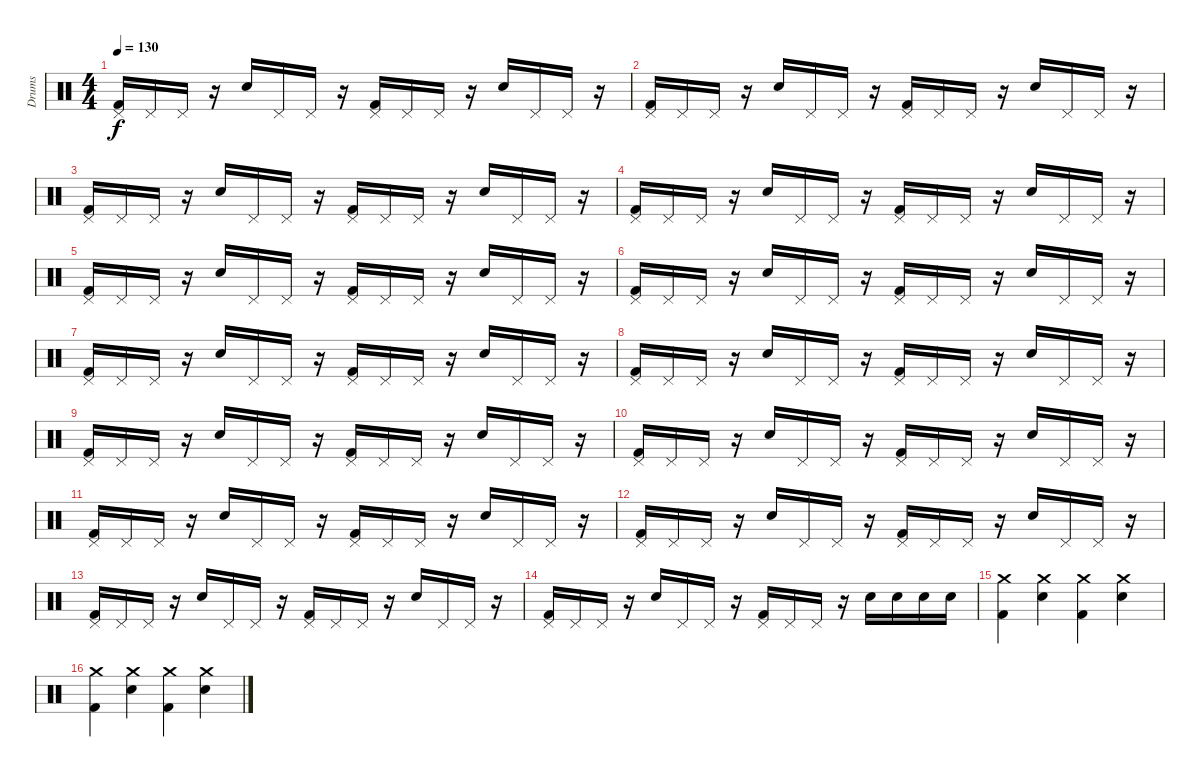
\track ("Drums" "Drums") {instrument percussion}
\staff {score}
\articulation defaults
\ts (4 4)
\tempo 130
\clef neutral
\ks c
("Pedal Hi-Hat (hit)" "Kick (hit) 2").16{dy f} "Pedal Hi-Hat (hit)".16 "Pedal Hi-Hat (hit)".16 r.16 "Electric Snare (hit)".16 "Pedal Hi-Hat (hit)".16 "Pedal Hi-Hat (hit)".16 r.16 ("Pedal Hi-Hat (hit)" "Kick (hit) 2").16 "Pedal Hi-Hat (hit)".16 "Pedal Hi-Hat (hit)".16 r.16 "Electric Snare (hit)".16 "Pedal Hi-Hat (hit)".16 "Pedal Hi-Hat (hit)".16 r.16 |
("Pedal Hi-Hat (hit)" "Kick (hit) 2").16 "Pedal Hi-Hat (hit)".16 "Pedal Hi-Hat (hit)".16 r.16 "Electric Snare (hit)".16 "Pedal Hi-Hat (hit)".16 "Pedal Hi-Hat (hit)".16 r.16 ("Pedal Hi-Hat (hit)" "Kick (hit) 2").16 "Pedal Hi-Hat (hit)".16 "Pedal Hi-Hat (hit)".16 r.16 "Electric Snare (hit)".16 "Pedal Hi-Hat (hit)".16 "Pedal Hi-Hat (hit)".16 r.16 |
("Pedal Hi-Hat (hit)" "Kick (hit) 2").16 "Pedal Hi-Hat (hit)".16 "Pedal Hi-Hat (hit)".16 r.16 "Electric Snare (hit)".16 "Pedal Hi-Hat (hit)".16 "Pedal Hi-Hat (hit)".16 r.16 ("Pedal Hi-Hat (hit)" "Kick (hit) 2").16 "Pedal Hi-Hat (hit)".16 "Pedal Hi-Hat (hit)".16 r.16 "Electric Snare (hit)".16 "Pedal Hi-Hat (hit)".16 "Pedal Hi-Hat (hit)".16 r.16 |
("Pedal Hi-Hat (hit)" "Kick (hit) 2").16 "Pedal Hi-Hat (hit)".16 "Pedal Hi-Hat (hit)".16 r.16 "Electric Snare (hit)".16 "Pedal Hi-Hat (hit)".16 "Pedal Hi-Hat (hit)".16 r.16 ("Pedal Hi-Hat (hit)" "Kick (hit) 2").16 "Pedal Hi-Hat (hit)".16 "Pedal Hi-Hat (hit)".16 r.16 "Electric Snare (hit)".16 "Pedal Hi-Hat (hit)".16 "Pedal Hi-Hat (hit)".16 r.16 |
("Pedal Hi-Hat (hit)" "Kick (hit) 2").16 "Pedal Hi-Hat (hit)".16 "Pedal Hi-Hat (hit)".16 r.16 "Electric Snare (hit)".16 "Pedal Hi-Hat (hit)".16 "Pedal Hi-Hat (hit)".16 r.16 ("Pedal Hi-Hat (hit)" "Kick (hit) 2").16 "Pedal Hi-Hat (hit)".16 "Pedal Hi-Hat (hit)".16 r.16 "Electric Snare (hit)".16 "Pedal Hi-Hat (hit)".16 "Pedal Hi-Hat (hit)".16 r.16 |
("Pedal Hi-Hat (hit)" "Kick (hit) 2").16 "Pedal Hi-Hat (hit)".16 "Pedal Hi-Hat (hit)".16 r.16 "Electric Snare (hit)".16 "Pedal Hi-Hat (hit)".16 "Pedal Hi-Hat (hit)".16 r.16 ("Pedal Hi-Hat (hit)" "Kick (hit) 2").16 "Pedal Hi-Hat (hit)".16 "Pedal Hi-Hat (hit)".16 r.16 "Electric Snare (hit)".16 "Pedal Hi-Hat (hit)".16 "Pedal Hi-Hat (hit)".16 r.16 |
("Pedal Hi-Hat (hit)" "Kick (hit) 2").16 "Pedal Hi-Hat (hit)".16 "Pedal Hi-Hat (hit)".16 r.16 "Electric Snare (hit)".16 "Pedal Hi-Hat (hit)".16 "Pedal Hi-Hat (hit)".16 r.16 ("Pedal Hi-Hat (hit)" "Kick (hit) 2").16 "Pedal Hi-Hat (hit)".16 "Pedal Hi-Hat (hit)".16 r.16 "Electric Snare (hit)".16 "Pedal Hi-Hat (hit)".16 "Pedal Hi-Hat (hit)".16 r.16 |
("Pedal Hi-Hat (hit)" "Kick (hit) 2").16 "Pedal Hi-Hat (hit)".16 "Pedal Hi-Hat (hit)".16 r.16 "Electric Snare (hit)".16 "Pedal Hi-Hat (hit)".16 "Pedal Hi-Hat (hit)".16 r.16 ("Pedal Hi-Hat (hit)" "Kick (hit) 2").16 "Pedal Hi-Hat (hit)".16 "Pedal Hi-Hat (hit)".16 r.16 "Electric Snare (hit)".16 "Pedal Hi-Hat (hit)".16 "Pedal Hi-Hat (hit)".16 r.16 |
("Pedal Hi-Hat (hit)" "Kick (hit) 2").16 "Pedal Hi-Hat (hit)".16 "Pedal Hi-Hat (hit)".16 r.16 "Electric Snare (hit)".16 "Pedal Hi-Hat (hit)".16 "Pedal Hi-Hat (hit)".16 r.16 ("Pedal Hi-Hat (hit)" "Kick (hit) 2").16 "Pedal Hi-Hat (hit)".16 "Pedal Hi-Hat (hit)".16 r.16 "Electric Snare (hit)".16 "Pedal Hi-Hat (hit)".16 "Pedal Hi-Hat (hit)".16 r.16 |
("Pedal Hi-Hat (hit)" "Kick (hit) 2").16 "Pedal Hi-Hat (hit)".16 "Pedal Hi-Hat (hit)".16 r.16 "Electric Snare (hit)".16 "Pedal Hi-Hat (hit)".16 "Pedal Hi-Hat (hit)".16 r.16 ("Pedal Hi-Hat (hit)" "Kick (hit) 2").16 "Pedal Hi-Hat (hit)".16 "Pedal Hi-Hat (hit)".16 r.16 "Electric Snare (hit)".16 "Pedal Hi-Hat (hit)".16 "Pedal Hi-Hat (hit)".16 r.16 |
("Pedal Hi-Hat (hit)" "Kick (hit) 2").16 "Pedal Hi-Hat (hit)".16 "Pedal Hi-Hat (hit)".16 r.16 "Electric Snare (hit)".16 "Pedal Hi-Hat (hit)".16 "Pedal Hi-Hat (hit)".16 r.16 ("Pedal Hi-Hat (hit)" "Kick (hit) 2").16 "Pedal Hi-Hat (hit)".16 "Pedal Hi-Hat (hit)".16 r.16 "Electric Snare (hit)".16 "Pedal Hi-Hat (hit)".16 "Pedal Hi-Hat (hit)".16 r.16 |
("Pedal Hi-Hat (hit)" "Kick (hit) 2").16 "Pedal Hi-Hat (hit)".16 "Pedal Hi-Hat (hit)".16 r.16 "Electric Snare (hit)".16 "Pedal Hi-Hat (hit)".16 "Pedal Hi-Hat (hit)".16 r.16 ("Pedal Hi-Hat (hit)" "Kick (hit) 2").16 "Pedal Hi-Hat (hit)".16 "Pedal Hi-Hat (hit)".16 r.16 "Electric Snare (hit)".16 "Pedal Hi-Hat (hit)".16 "Pedal Hi-Hat (hit)".16 r.16 |
("Pedal Hi-Hat (hit)" "Kick (hit) 2").16 "Pedal Hi-Hat (hit)".16 "Pedal Hi-Hat (hit)".16 r.16 "Electric Snare (hit)".16 "Pedal Hi-Hat (hit)".16 "Pedal Hi-Hat (hit)".16 r.16 ("Pedal Hi-Hat (hit)" "Kick (hit) 2").16 "Pedal Hi-Hat (hit)".16 "Pedal Hi-Hat (hit)".16 r.16 "Electric Snare (hit)".16 "Pedal Hi-Hat (hit)".16 "Pedal Hi-Hat (hit)".16 r.16 |
("Pedal Hi-Hat (hit)" "Kick (hit) 2").16 "Pedal Hi-Hat (hit)".16 "Pedal Hi-Hat (hit)".16 r.16 "Electric Snare (hit)".16 "Pedal Hi-Hat (hit)".16 "Pedal Hi-Hat (hit)".16 r.16 ("Pedal Hi-Hat (hit)" "Kick (hit) 2").16 "Pedal Hi-Hat (hit)".16 "Pedal Hi-Hat (hit)".16 r.16 "Electric Snare (hit)".16 "Electric Snare (hit)".16 "Electric Snare (hit)".16 "Electric Snare (hit)".16 |
("Crash medium (hit)" "Kick (hit) 2").4 ("Crash medium (hit)" "Electric Snare (hit)").4 ("Crash medium (hit)" "Kick (hit) 2").4 ("Crash medium (hit)" "Electric Snare (hit)").4 |
("Crash medium (hit)" "Kick (hit) 2").4 ("Crash medium (hit)" "Electric Snare (hit)").4 ("Crash medium (hit)" "Kick (hit) 2").4 ("Crash medium (hit)" "Electric Snare (hit)").4
